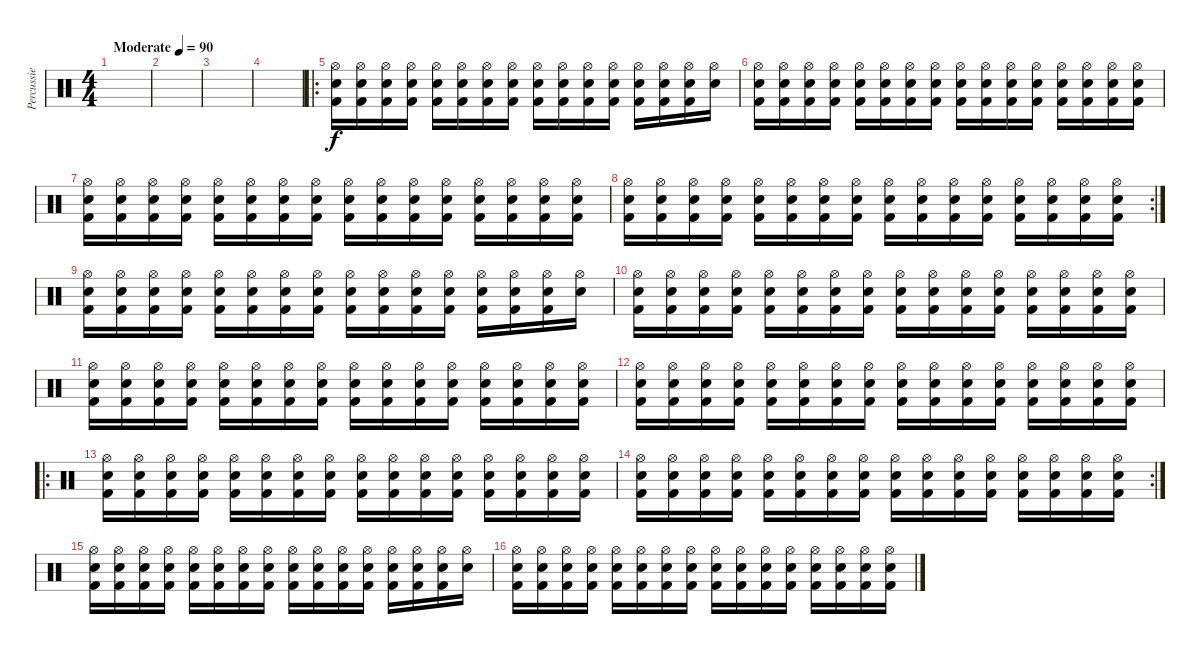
\track ("Percussie" "Percussie") {instrument percussion}
\staff {score}
\articulation defaults
\ts (4 4)
\tempo (90 "Moderate")
\clef neutral
\ks c
|
|
|
|
\ro
("Hi-Hat (open)" "Electric Snare (hit)" "Kick (hit) 2").16 ("Hi-Hat (open)" "Electric Snare (hit)" "Kick (hit) 2").16 ("Hi-Hat (open)" "Electric Snare (hit)" "Kick (hit) 2").16 ("Hi-Hat (open)" "Electric Snare (hit)" "Kick (hit) 2").16 ("Hi-Hat (open)" "Electric Snare (hit)" "Kick (hit) 2").16 ("Hi-Hat (open)" "Electric Snare (hit)" "Kick (hit) 2").16 ("Hi-Hat (open)" "Electric Snare (hit)" "Kick (hit) 2").16 ("Hi-Hat (open)" "Electric Snare (hit)" "Kick (hit) 2").16 ("Hi-Hat (open)" "Electric Snare (hit)" "Kick (hit) 2").16 ("Hi-Hat (open)" "Electric Snare (hit)" "Kick (hit) 2").16 ("Hi-Hat (open)" "Electric Snare (hit)" "Kick (hit) 2").16 ("Hi-Hat (open)" "Electric Snare (hit)" "Kick (hit) 2").16 ("Hi-Hat (open)" "Electric Snare (hit)" "Kick (hit) 2").16 ("Hi-Hat (open)" "Electric Snare (hit)" "Kick (hit) 2").16 ("Hi-Hat (open)" "Electric Snare (hit)" "Kick (hit) 2").16 ("Hi-Hat (open)" "Electric Snare (hit)").16 |
("Hi-Hat (open)" "Electric Snare (hit)" "Kick (hit) 2").16 ("Hi-Hat (open)" "Electric Snare (hit)" "Kick (hit) 2").16 ("Hi-Hat (open)" "Electric Snare (hit)" "Kick (hit) 2").16 ("Hi-Hat (open)" "Electric Snare (hit)" "Kick (hit) 2").16 ("Hi-Hat (open)" "Electric Snare (hit)" "Kick (hit) 2").16 ("Hi-Hat (open)" "Electric Snare (hit)" "Kick (hit) 2").16 ("Hi-Hat (open)" "Electric Snare (hit)" "Kick (hit) 2").16 ("Hi-Hat (open)" "Electric Snare (hit)" "Kick (hit) 2").16 ("Hi-Hat (open)" "Electric Snare (hit)" "Kick (hit) 2").16 ("Hi-Hat (open)" "Electric Snare (hit)" "Kick (hit) 2").16 ("Hi-Hat (open)" "Electric Snare (hit)" "Kick (hit) 2").16 ("Hi-Hat (open)" "Electric Snare (hit)" "Kick (hit) 2").16 ("Hi-Hat (open)" "Electric Snare (hit)" "Kick (hit) 2").16 ("Hi-Hat (open)" "Electric Snare (hit)" "Kick (hit) 2").16 ("Hi-Hat (open)" "Electric Snare (hit)" "Kick (hit) 2").16 ("Hi-Hat (open)" "Electric Snare (hit)" "Kick (hit) 2").16 |
("Hi-Hat (open)" "Electric Snare (hit)" "Kick (hit) 2").16 ("Hi-Hat (open)" "Electric Snare (hit)" "Kick (hit) 2").16 ("Hi-Hat (open)" "Electric Snare (hit)" "Kick (hit) 2").16 ("Hi-Hat (open)" "Electric Snare (hit)" "Kick (hit) 2").16 ("Hi-Hat (open)" "Electric Snare (hit)" "Kick (hit) 2").16 ("Hi-Hat (open)" "Electric Snare (hit)" "Kick (hit) 2").16 ("Hi-Hat (open)" "Electric Snare (hit)" "Kick (hit) 2").16 ("Hi-Hat (open)" "Electric Snare (hit)" "Kick (hit) 2").16 ("Hi-Hat (open)" "Electric Snare (hit)" "Kick (hit) 2").16 ("Hi-Hat (open)" "Electric Snare (hit)" "Kick (hit) 2").16 ("Hi-Hat (open)" "Electric Snare (hit)" "Kick (hit) 2").16 ("Hi-Hat (open)" "Electric Snare (hit)" "Kick (hit) 2").16 ("Hi-Hat (open)" "Electric Snare (hit)" "Kick (hit) 2").16 ("Hi-Hat (open)" "Electric Snare (hit)" "Kick (hit) 2").16 ("Hi-Hat (open)" "Electric Snare (hit)" "Kick (hit) 2").16 ("Hi-Hat (open)" "Electric Snare (hit)" "Kick (hit) 2").16 |
\rc 2
("Hi-Hat (open)" "Electric Snare (hit)" "Kick (hit) 2").16 ("Hi-Hat (open)" "Electric Snare (hit)" "Kick (hit) 2").16 ("Hi-Hat (open)" "Electric Snare (hit)" "Kick (hit) 2").16 ("Hi-Hat (open)" "Electric Snare (hit)" "Kick (hit) 2").16 ("Hi-Hat (open)" "Electric Snare (hit)" "Kick (hit) 2").16 ("Hi-Hat (open)" "Electric Snare (hit)" "Kick (hit) 2").16 ("Hi-Hat (open)" "Electric Snare (hit)" "Kick (hit) 2").16 ("Hi-Hat (open)" "Electric Snare (hit)" "Kick (hit) 2").16 ("Hi-Hat (open)" "Electric Snare (hit)" "Kick (hit) 2").16 ("Hi-Hat (open)" "Electric Snare (hit)" "Kick (hit) 2").16 ("Hi-Hat (open)" "Electric Snare (hit)" "Kick (hit) 2").16 ("Hi-Hat (open)" "Electric Snare (hit)" "Kick (hit) 2").16 ("Hi-Hat (open)" "Electric Snare (hit)" "Kick (hit) 2").16 ("Hi-Hat (open)" "Electric Snare (hit)" "Kick (hit) 2").16 ("Hi-Hat (open)" "Electric Snare (hit)" "Kick (hit) 2").16 ("Hi-Hat (open)" "Electric Snare (hit)" "Kick (hit) 2").16 |
("Hi-Hat (open)" "Electric Snare (hit)" "Kick (hit) 2").16 ("Hi-Hat (open)" "Electric Snare (hit)" "Kick (hit) 2").16 ("Hi-Hat (open)" "Electric Snare (hit)" "Kick (hit) 2").16 ("Hi-Hat (open)" "Electric Snare (hit)" "Kick (hit) 2").16 ("Hi-Hat (open)" "Electric Snare (hit)" "Kick (hit) 2").16 ("Hi-Hat (open)" "Electric Snare (hit)" "Kick (hit) 2").16 ("Hi-Hat (open)" "Electric Snare (hit)" "Kick (hit) 2").16 ("Hi-Hat (open)" "Electric Snare (hit)" "Kick (hit) 2").16 ("Hi-Hat (open)" "Electric Snare (hit)" "Kick (hit) 2").16 ("Hi-Hat (open)" "Electric Snare (hit)" "Kick (hit) 2").16 ("Hi-Hat (open)" "Electric Snare (hit)" "Kick (hit) 2").16 ("Hi-Hat (open)" "Electric Snare (hit)" "Kick (hit) 2").16 ("Hi-Hat (open)" "Electric Snare (hit)" "Kick (hit) 2").16 ("Hi-Hat (open)" "Electric Snare (hit)" "Kick (hit) 2").16 ("Hi-Hat (open)" "Electric Snare (hit)" "Kick (hit) 2").16 ("Hi-Hat (open)" "Electric Snare (hit)").16 |
("Hi-Hat (open)" "Electric Snare (hit)" "Kick (hit) 2").16 ("Hi-Hat (open)" "Electric Snare (hit)" "Kick (hit) 2").16 ("Hi-Hat (open)" "Electric Snare (hit)" "Kick (hit) 2").16 ("Hi-Hat (open)" "Electric Snare (hit)" "Kick (hit) 2").16 ("Hi-Hat (open)" "Electric Snare (hit)" "Kick (hit) 2").16 ("Hi-Hat (open)" "Electric Snare (hit)" "Kick (hit) 2").16 ("Hi-Hat (open)" "Electric Snare (hit)" "Kick (hit) 2").16 ("Hi-Hat (open)" "Electric Snare (hit)" "Kick (hit) 2").16 ("Hi-Hat (open)" "Electric Snare (hit)" "Kick (hit) 2").16 ("Hi-Hat (open)" "Electric Snare (hit)" "Kick (hit) 2").16 ("Hi-Hat (open)" "Electric Snare (hit)" "Kick (hit) 2").16 ("Hi-Hat (open)" "Electric Snare (hit)" "Kick (hit) 2").16 ("Hi-Hat (open)" "Electric Snare (hit)" "Kick (hit) 2").16 ("Hi-Hat (open)" "Electric Snare (hit)" "Kick (hit) 2").16 ("Hi-Hat (open)" "Electric Snare (hit)" "Kick (hit) 2").16 ("Hi-Hat (open)" "Electric Snare (hit)" "Kick (hit) 2").16 |
("Hi-Hat (open)" "Electric Snare (hit)" "Kick (hit) 2").16 ("Hi-Hat (open)" "Electric Snare (hit)" "Kick (hit) 2").16 ("Hi-Hat (open)" "Electric Snare (hit)" "Kick (hit) 2").16 ("Hi-Hat (open)" "Electric Snare (hit)" "Kick (hit) 2").16 ("Hi-Hat (open)" "Electric Snare (hit)" "Kick (hit) 2").16 ("Hi-Hat (open)" "Electric Snare (hit)" "Kick (hit) 2").16 ("Hi-Hat (open)" "Electric Snare (hit)" "Kick (hit) 2").16 ("Hi-Hat (open)" "Electric Snare (hit)" "Kick (hit) 2").16 ("Hi-Hat (open)" "Electric Snare (hit)" "Kick (hit) 2").16 ("Hi-Hat (open)" "Electric Snare (hit)" "Kick (hit) 2").16 ("Hi-Hat (open)" "Electric Snare (hit)" "Kick (hit) 2").16 ("Hi-Hat (open)" "Electric Snare (hit)" "Kick (hit) 2").16 ("Hi-Hat (open)" "Electric Snare (hit)" "Kick (hit) 2").16 ("Hi-Hat (open)" "Electric Snare (hit)" "Kick (hit) 2").16 ("Hi-Hat (open)" "Electric Snare (hit)" "Kick (hit) 2").16 ("Hi-Hat (open)" "Electric Snare (hit)" "Kick (hit) 2").16 |
("Hi-Hat (open)" "Electric Snare (hit)" "Kick (hit) 2").16 ("Hi-Hat (open)" "Electric Snare (hit)" "Kick (hit) 2").16 ("Hi-Hat (open)" "Electric Snare (hit)" "Kick (hit) 2").16 ("Hi-Hat (open)" "Electric Snare (hit)" "Kick (hit) 2").16 ("Hi-Hat (open)" "Electric Snare (hit)" "Kick (hit) 2").16 ("Hi-Hat (open)" "Electric Snare (hit)" "Kick (hit) 2").16 ("Hi-Hat (open)" "Electric Snare (hit)" "Kick (hit) 2").16 ("Hi-Hat (open)" "Electric Snare (hit)" "Kick (hit) 2").16 ("Hi-Hat (open)" "Electric Snare (hit)" "Kick (hit) 2").16 ("Hi-Hat (open)" "Electric Snare (hit)" "Kick (hit) 2").16 ("Hi-Hat (open)" "Electric Snare (hit)" "Kick (hit) 2").16 ("Hi-Hat (open)" "Electric Snare (hit)" "Kick (hit) 2").16 ("Hi-Hat (open)" "Electric Snare (hit)" "Kick (hit) 2").16 ("Hi-Hat (open)" "Electric Snare (hit)" "Kick (hit) 2").16 ("Hi-Hat (open)" "Electric Snare (hit)" "Kick (hit) 2").16 ("Hi-Hat (open)" "Electric Snare (hit)" "Kick (hit) 2").16 |
\ro
("Hi-Hat (open)" "Electric Snare (hit)" "Kick (hit) 2").16 ("Hi-Hat (open)" "Electric Snare (hit)" "Kick (hit) 2").16 ("Hi-Hat (open)" "Electric Snare (hit)" "Kick (hit) 2").16 ("Hi-Hat (open)" "Electric Snare (hit)" "Kick (hit) 2").16 ("Hi-Hat (open)" "Electric Snare (hit)" "Kick (hit) 2").16 ("Hi-Hat (open)" "Electric Snare (hit)" "Kick (hit) 2").16 ("Hi-Hat (open)" "Electric Snare (hit)" "Kick (hit) 2").16 ("Hi-Hat (open)" "Electric Snare (hit)" "Kick (hit) 2").16 ("Hi-Hat (open)" "Electric Snare (hit)" "Kick (hit) 2").16 ("Hi-Hat (open)" "Electric Snare (hit)" "Kick (hit) 2").16 ("Hi-Hat (open)" "Electric Snare (hit)" "Kick (hit) 2").16 ("Hi-Hat (open)" "Electric Snare (hit)" "Kick (hit) 2").16 ("Hi-Hat (open)" "Electric Snare (hit)" "Kick (hit) 2").16 ("Hi-Hat (open)" "Electric Snare (hit)" "Kick (hit) 2").16 ("Hi-Hat (open)" "Electric Snare (hit)" "Kick (hit) 2").16 ("Hi-Hat (open)" "Electric Snare (hit)" "Kick (hit) 2").16 |
\rc 2
("Hi-Hat (open)" "Electric Snare (hit)" "Kick (hit) 2").16 ("Hi-Hat (open)" "Electric Snare (hit)" "Kick (hit) 2").16 ("Hi-Hat (open)" "Electric Snare (hit)" "Kick (hit) 2").16 ("Hi-Hat (open)" "Electric Snare (hit)" "Kick (hit) 2").16 ("Hi-Hat (open)" "Electric Snare (hit)" "Kick (hit) 2").16 ("Hi-Hat (open)" "Electric Snare (hit)" "Kick (hit) 2").16 ("Hi-Hat (open)" "Electric Snare (hit)" "Kick (hit) 2").16 ("Hi-Hat (open)" "Electric Snare (hit)" "Kick (hit) 2").16 ("Hi-Hat (open)" "Electric Snare (hit)" "Kick (hit) 2").16 ("Hi-Hat (open)" "Electric Snare (hit)" "Kick (hit) 2").16 ("Hi-Hat (open)" "Electric Snare (hit)" "Kick (hit) 2").16 ("Hi-Hat (open)" "Electric Snare (hit)" "Kick (hit) 2").16 ("Hi-Hat (open)" "Electric Snare (hit)" "Kick (hit) 2").16 ("Hi-Hat (open)" "Electric Snare (hit)" "Kick (hit) 2").16 ("Hi-Hat (open)" "Electric Snare (hit)" "Kick (hit) 2").16 ("Hi-Hat (open)" "Electric Snare (hit)" "Kick (hit) 2").16 |
("Hi-Hat (open)" "Electric Snare (hit)" "Kick (hit) 2").16 ("Hi-Hat (open)" "Electric Snare (hit)" "Kick (hit) 2").16 ("Hi-Hat (open)" "Electric Snare (hit)" "Kick (hit) 2").16 ("Hi-Hat (open)" "Electric Snare (hit)" "Kick (hit) 2").16 ("Hi-Hat (open)" "Electric Snare (hit)" "Kick (hit) 2").16 ("Hi-Hat (open)" "Electric Snare (hit)" "Kick (hit) 2").16 ("Hi-Hat (open)" "Electric Snare (hit)" "Kick (hit) 2").16 ("Hi-Hat (open)" "Electric Snare (hit)" "Kick (hit) 2").16 ("Hi-Hat (open)" "Electric Snare (hit)" "Kick (hit) 2").16 ("Hi-Hat (open)" "Electric Snare (hit)" "Kick (hit) 2").16 ("Hi-Hat (open)" "Electric Snare (hit)" "Kick (hit) 2").16 ("Hi-Hat (open)" "Electric Snare (hit)" "Kick (hit) 2").16 ("Hi-Hat (open)" "Electric Snare (hit)" "Kick (hit) 2").16 ("Hi-Hat (open)" "Electric Snare (hit)" "Kick (hit) 2").16 ("Hi-Hat (open)" "Electric Snare (hit)" "Kick (hit) 2").16 ("Hi-Hat (open)" "Electric Snare (hit)").16 |
("Hi-Hat (open)" "Electric Snare (hit)" "Kick (hit) 2").16 ("Hi-Hat (open)" "Electric Snare (hit)" "Kick (hit) 2").16 ("Hi-Hat (open)" "Electric Snare (hit)" "Kick (hit) 2").16 ("Hi-Hat (open)" "Electric Snare (hit)" "Kick (hit) 2").16 ("Hi-Hat (open)" "Electric Snare (hit)" "Kick (hit) 2").16 ("Hi-Hat (open)" "Electric Snare (hit)" "Kick (hit) 2").16 ("Hi-Hat (open)" "Electric Snare (hit)" "Kick (hit) 2").16 ("Hi-Hat (open)" "Electric Snare (hit)" "Kick (hit) 2").16 ("Hi-Hat (open)" "Electric Snare (hit)" "Kick (hit) 2").16 ("Hi-Hat (open)" "Electric Snare (hit)" "Kick (hit) 2").16 ("Hi-Hat (open)" "Electric Snare (hit)" "Kick (hit) 2").16 ("Hi-Hat (open)" "Electric Snare (hit)" "Kick (hit) 2").16 ("Hi-Hat (open)" "Electric Snare (hit)" "Kick (hit) 2").16 ("Hi-Hat (open)" "Electric Snare (hit)" "Kick (hit) 2").16 ("Hi-Hat (open)" "Electric Snare (hit)" "Kick (hit) 2").16 ("Hi-Hat (open)" "Electric Snare (hit)" "Kick (hit) 2").16
